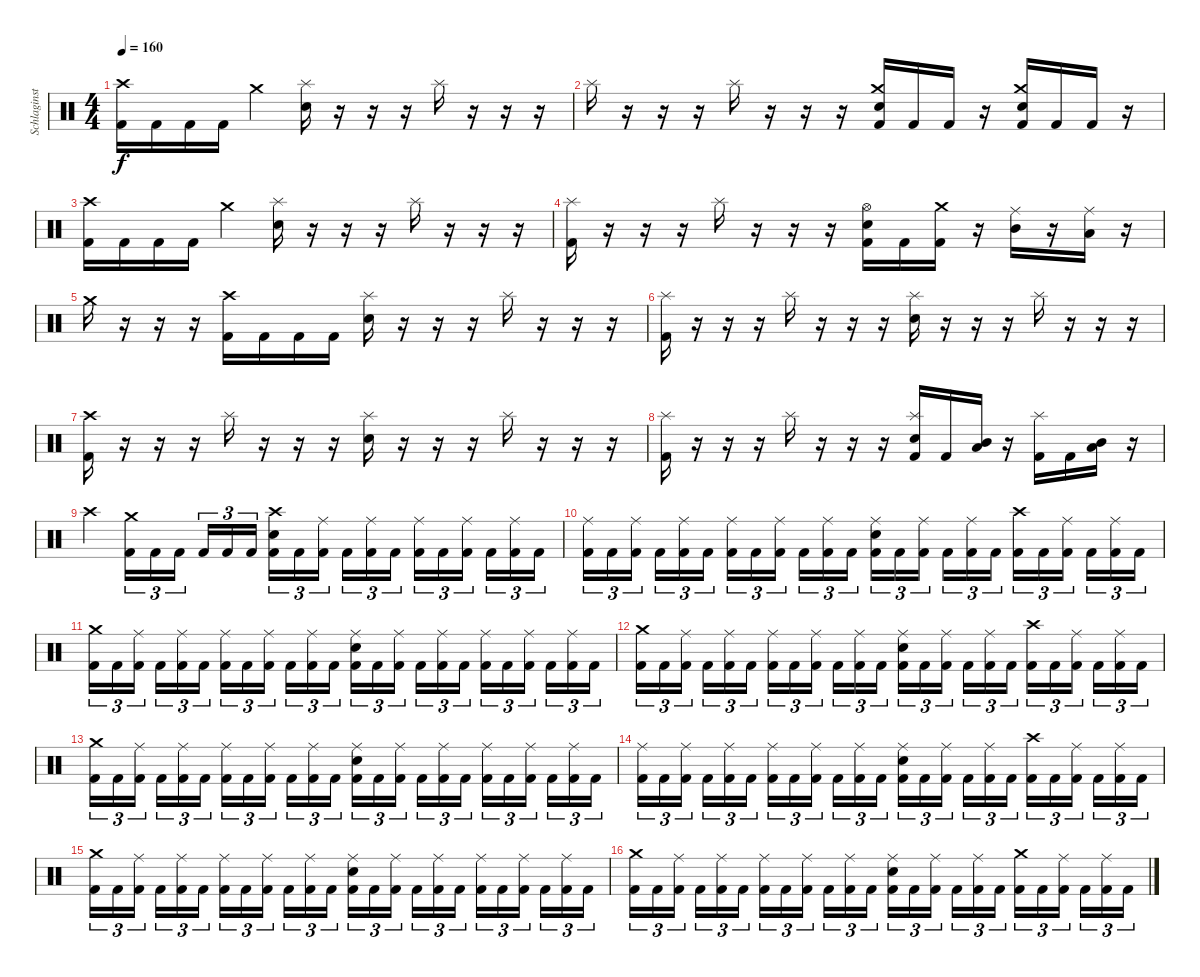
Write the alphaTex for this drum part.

\track ("Schlaginstrumente - Auswahl" "Schlaginst") {instrument percussion}
\staff {score}
\articulation defaults
\ts (4 4)
\tempo 160
\clef neutral
\ks c
("Crash high (hit)" "Kick (hit) 2").16{dy f} "Kick (hit) 2".16 "Kick (hit) 2".16 "Kick (hit) 2".16 "Crash medium (hit)".4 ("Splash (hit)" "Electric Snare (hit)").16 r.16 r.16 r.16 "Splash (hit)".16 r.16 r.16 r.16 |
"Splash (hit)".16 r.16 r.16 r.16 "Splash (hit)".16 r.16 r.16 r.16 ("Crash medium (hit)" "Electric Snare (hit)" "Kick (hit) 2").16 "Kick (hit) 2".16 "Kick (hit) 2".16 r.16 ("Crash medium (hit)" "Electric Snare (hit)" "Kick (hit) 2").16 "Kick (hit) 2".16 "Kick (hit) 2".16 r.16 |
("Crash high (hit)" "Kick (hit) 2").16 "Kick (hit) 2".16 "Kick (hit) 2".16 "Kick (hit) 2".16 "Crash medium (hit)".4 ("Splash (hit)" "Electric Snare (hit)").16 r.16 r.16 r.16 "Splash (hit)".16 r.16 r.16 r.16 |
("Splash (hit)" "Kick (hit) 2").16 r.16 r.16 r.16 "Splash (hit)".16 r.16 r.16 r.16 ("Hi-Hat (open)" "Electric Snare (hit)" "Kick (hit) 2").16 "Kick (hit) 2".16 ("Crash medium (hit)" "Kick (hit) 2").16 r.16 ("Ride (middle)" "Mid Tom (hit)").16 r.16 ("Ride (middle)" "Low Tom (hit)").16 r.16 |
"Crash medium (hit)".16 r.16 r.16 r.16 ("Crash high (hit)" "Kick (hit) 2").16 "Kick (hit) 2".16 "Kick (hit) 2".16 "Kick (hit) 2".16 ("Splash (hit)" "Electric Snare (hit)").16 r.16 r.16 r.16 "Splash (hit)".16 r.16 r.16 r.16 |
("Splash (hit)" "Kick (hit) 2").16 r.16 r.16 r.16 "Splash (hit)".16 r.16 r.16 r.16 ("Splash (hit)" "Electric Snare (hit)").16 r.16 r.16 r.16 "Splash (hit)".16 r.16 r.16 r.16 |
("Crash high (hit)" "Kick (hit) 2").16 r.16 r.16 r.16 "Splash (hit)".16 r.16 r.16 r.16 ("Splash (hit)" "Electric Snare (hit)").16 r.16 r.16 r.16 "Splash (hit)".16 r.16 r.16 r.16 |
("Splash (hit)" "Kick (hit) 2").16 r.16 r.16 r.16 "Splash (hit)".16 r.16 r.16 r.16 ("Splash (hit)" "Electric Snare (hit)" "Kick (hit) 2").16 "Kick (hit) 2".16 ("Low Tom (hit)" "Mid Tom (hit)").16 r.16 ("Splash (hit)" "Kick (hit) 2").16 "Kick (hit) 2".16 ("Low Tom (hit)" "Mid Tom (hit)").16 r.16 |
"Crash high (hit)".4 ("Crash medium (hit)" "Kick (hit) 2").16{tu (3 2)} "Kick (hit) 2".16{tu (3 2)} "Kick (hit) 2".16{tu (3 2) beam splitsecondary} "Kick (hit) 2".16{tu (3 2)} "Kick (hit) 2".16{tu (3 2)} "Kick (hit) 2".16{tu (3 2)} ("Crash high (hit)" "Electric Snare (hit)" "Kick (hit) 2").16{tu (3 2)} "Kick (hit) 2".16{tu (3 2)} ("Ride (middle)" "Kick (hit) 2").16{tu (3 2) beam splitsecondary} "Kick (hit) 2".16{tu (3 2)} ("Ride (middle)" "Kick (hit) 2").16{tu (3 2)} "Kick (hit) 2".16{tu (3 2)} ("Ride (middle)" "Kick (hit) 2").16{tu (3 2)} "Kick (hit) 2".16{tu (3 2)} ("Ride (middle)" "Kick (hit) 2").16{tu (3 2) beam splitsecondary} "Kick (hit) 2".16{tu (3 2)} ("Ride (middle)" "Kick (hit) 2").16{tu (3 2)} "Kick (hit) 2".16{tu (3 2)} |
("Ride (middle)" "Kick (hit) 2").16{tu (3 2)} "Kick (hit) 2".16{tu (3 2)} ("Ride (middle)" "Kick (hit) 2").16{tu (3 2) beam splitsecondary} "Kick (hit) 2".16{tu (3 2)} ("Ride (middle)" "Kick (hit) 2").16{tu (3 2)} "Kick (hit) 2".16{tu (3 2)} ("Ride (middle)" "Kick (hit) 2").16{tu (3 2)} "Kick (hit) 2".16{tu (3 2)} ("Ride (middle)" "Kick (hit) 2").16{tu (3 2) beam splitsecondary} "Kick (hit) 2".16{tu (3 2)} ("Ride (middle)" "Kick (hit) 2").16{tu (3 2)} "Kick (hit) 2".16{tu (3 2)} ("Ride (middle)" "Electric Snare (hit)" "Kick (hit) 2").16{tu (3 2)} "Kick (hit) 2".16{tu (3 2)} ("Ride (middle)" "Kick (hit) 2").16{tu (3 2) beam splitsecondary} "Kick (hit) 2".16{tu (3 2)} ("Ride (middle)" "Kick (hit) 2").16{tu (3 2)} "Kick (hit) 2".16{tu (3 2)} ("Crash high (hit)" "Kick (hit) 2").16{tu (3 2)} "Kick (hit) 2".16{tu (3 2)} ("Ride (middle)" "Kick (hit) 2").16{tu (3 2) beam splitsecondary} "Kick (hit) 2".16{tu (3 2)} ("Ride (middle)" "Kick (hit) 2").16{tu (3 2)} "Kick (hit) 2".16{tu (3 2)} |
("Crash medium (hit)" "Kick (hit) 2").16{tu (3 2)} "Kick (hit) 2".16{tu (3 2)} ("Ride (middle)" "Kick (hit) 2").16{tu (3 2) beam splitsecondary} "Kick (hit) 2".16{tu (3 2)} ("Ride (middle)" "Kick (hit) 2").16{tu (3 2)} "Kick (hit) 2".16{tu (3 2)} ("Ride (middle)" "Kick (hit) 2").16{tu (3 2)} "Kick (hit) 2".16{tu (3 2)} ("Ride (middle)" "Kick (hit) 2").16{tu (3 2) beam splitsecondary} "Kick (hit) 2".16{tu (3 2)} ("Ride (middle)" "Kick (hit) 2").16{tu (3 2)} "Kick (hit) 2".16{tu (3 2)} ("Ride (middle)" "Electric Snare (hit)" "Kick (hit) 2").16{tu (3 2)} "Kick (hit) 2".16{tu (3 2)} ("Ride (middle)" "Kick (hit) 2").16{tu (3 2) beam splitsecondary} "Kick (hit) 2".16{tu (3 2)} ("Ride (middle)" "Kick (hit) 2").16{tu (3 2)} "Kick (hit) 2".16{tu (3 2)} ("Ride (middle)" "Kick (hit) 2").16{tu (3 2)} "Kick (hit) 2".16{tu (3 2)} ("Ride (middle)" "Kick (hit) 2").16{tu (3 2) beam splitsecondary} "Kick (hit) 2".16{tu (3 2)} ("Ride (middle)" "Kick (hit) 2").16{tu (3 2)} "Kick (hit) 2".16{tu (3 2)} |
("Crash medium (hit)" "Kick (hit) 2").16{tu (3 2)} "Kick (hit) 2".16{tu (3 2)} ("Ride (middle)" "Kick (hit) 2").16{tu (3 2) beam splitsecondary} "Kick (hit) 2".16{tu (3 2)} ("Ride (middle)" "Kick (hit) 2").16{tu (3 2)} "Kick (hit) 2".16{tu (3 2)} ("Ride (middle)" "Kick (hit) 2").16{tu (3 2)} "Kick (hit) 2".16{tu (3 2)} ("Ride (middle)" "Kick (hit) 2").16{tu (3 2) beam splitsecondary} "Kick (hit) 2".16{tu (3 2)} ("Ride (middle)" "Kick (hit) 2").16{tu (3 2)} "Kick (hit) 2".16{tu (3 2)} ("Ride (middle)" "Electric Snare (hit)" "Kick (hit) 2").16{tu (3 2)} "Kick (hit) 2".16{tu (3 2)} ("Ride (middle)" "Kick (hit) 2").16{tu (3 2) beam splitsecondary} "Kick (hit) 2".16{tu (3 2)} ("Ride (middle)" "Kick (hit) 2").16{tu (3 2)} "Kick (hit) 2".16{tu (3 2)} ("Crash high (hit)" "Kick (hit) 2").16{tu (3 2)} "Kick (hit) 2".16{tu (3 2)} ("Ride (middle)" "Kick (hit) 2").16{tu (3 2) beam splitsecondary} "Kick (hit) 2".16{tu (3 2)} ("Ride (middle)" "Kick (hit) 2").16{tu (3 2)} "Kick (hit) 2".16{tu (3 2)} |
("Crash medium (hit)" "Kick (hit) 2").16{tu (3 2)} "Kick (hit) 2".16{tu (3 2)} ("Ride (middle)" "Kick (hit) 2").16{tu (3 2) beam splitsecondary} "Kick (hit) 2".16{tu (3 2)} ("Ride (middle)" "Kick (hit) 2").16{tu (3 2)} "Kick (hit) 2".16{tu (3 2)} ("Ride (middle)" "Kick (hit) 2").16{tu (3 2)} "Kick (hit) 2".16{tu (3 2)} ("Ride (middle)" "Kick (hit) 2").16{tu (3 2) beam splitsecondary} "Kick (hit) 2".16{tu (3 2)} ("Ride (middle)" "Kick (hit) 2").16{tu (3 2)} "Kick (hit) 2".16{tu (3 2)} ("Ride (middle)" "Electric Snare (hit)" "Kick (hit) 2").16{tu (3 2)} "Kick (hit) 2".16{tu (3 2)} ("Ride (middle)" "Kick (hit) 2").16{tu (3 2) beam splitsecondary} "Kick (hit) 2".16{tu (3 2)} ("Ride (middle)" "Kick (hit) 2").16{tu (3 2)} "Kick (hit) 2".16{tu (3 2)} ("Ride (middle)" "Kick (hit) 2").16{tu (3 2)} "Kick (hit) 2".16{tu (3 2)} ("Ride (middle)" "Kick (hit) 2").16{tu (3 2) beam splitsecondary} "Kick (hit) 2".16{tu (3 2)} ("Ride (middle)" "Kick (hit) 2").16{tu (3 2)} "Kick (hit) 2".16{tu (3 2)} |
("Ride (middle)" "Kick (hit) 2").16{tu (3 2)} "Kick (hit) 2".16{tu (3 2)} ("Ride (middle)" "Kick (hit) 2").16{tu (3 2) beam splitsecondary} "Kick (hit) 2".16{tu (3 2)} ("Ride (middle)" "Kick (hit) 2").16{tu (3 2)} "Kick (hit) 2".16{tu (3 2)} ("Ride (middle)" "Kick (hit) 2").16{tu (3 2)} "Kick (hit) 2".16{tu (3 2)} ("Ride (middle)" "Kick (hit) 2").16{tu (3 2) beam splitsecondary} "Kick (hit) 2".16{tu (3 2)} ("Ride (middle)" "Kick (hit) 2").16{tu (3 2)} "Kick (hit) 2".16{tu (3 2)} ("Ride (middle)" "Electric Snare (hit)" "Kick (hit) 2").16{tu (3 2)} "Kick (hit) 2".16{tu (3 2)} ("Ride (middle)" "Kick (hit) 2").16{tu (3 2) beam splitsecondary} "Kick (hit) 2".16{tu (3 2)} ("Ride (middle)" "Kick (hit) 2").16{tu (3 2)} "Kick (hit) 2".16{tu (3 2)} ("Crash high (hit)" "Kick (hit) 2").16{tu (3 2)} "Kick (hit) 2".16{tu (3 2)} ("Ride (middle)" "Kick (hit) 2").16{tu (3 2) beam splitsecondary} "Kick (hit) 2".16{tu (3 2)} ("Ride (middle)" "Kick (hit) 2").16{tu (3 2)} "Kick (hit) 2".16{tu (3 2)} |
("Crash medium (hit)" "Kick (hit) 2").16{tu (3 2)} "Kick (hit) 2".16{tu (3 2)} ("Ride (middle)" "Kick (hit) 2").16{tu (3 2) beam splitsecondary} "Kick (hit) 2".16{tu (3 2)} ("Ride (middle)" "Kick (hit) 2").16{tu (3 2)} "Kick (hit) 2".16{tu (3 2)} ("Ride (middle)" "Kick (hit) 2").16{tu (3 2)} "Kick (hit) 2".16{tu (3 2)} ("Ride (middle)" "Kick (hit) 2").16{tu (3 2) beam splitsecondary} "Kick (hit) 2".16{tu (3 2)} ("Ride (middle)" "Kick (hit) 2").16{tu (3 2)} "Kick (hit) 2".16{tu (3 2)} ("Ride (middle)" "Electric Snare (hit)" "Kick (hit) 2").16{tu (3 2)} "Kick (hit) 2".16{tu (3 2)} ("Ride (middle)" "Kick (hit) 2").16{tu (3 2) beam splitsecondary} "Kick (hit) 2".16{tu (3 2)} ("Ride (middle)" "Kick (hit) 2").16{tu (3 2)} "Kick (hit) 2".16{tu (3 2)} ("Ride (middle)" "Kick (hit) 2").16{tu (3 2)} "Kick (hit) 2".16{tu (3 2)} ("Ride (middle)" "Kick (hit) 2").16{tu (3 2) beam splitsecondary} "Kick (hit) 2".16{tu (3 2)} ("Ride (middle)" "Kick (hit) 2").16{tu (3 2)} "Kick (hit) 2".16{tu (3 2)} |
("Crash medium (hit)" "Kick (hit) 2").16{tu (3 2)} "Kick (hit) 2".16{tu (3 2)} ("Ride (middle)" "Kick (hit) 2").16{tu (3 2) beam splitsecondary} "Kick (hit) 2".16{tu (3 2)} ("Ride (middle)" "Kick (hit) 2").16{tu (3 2)} "Kick (hit) 2".16{tu (3 2)} ("Ride (middle)" "Kick (hit) 2").16{tu (3 2)} "Kick (hit) 2".16{tu (3 2)} ("Ride (middle)" "Kick (hit) 2").16{tu (3 2) beam splitsecondary} "Kick (hit) 2".16{tu (3 2)} ("Ride (middle)" "Kick (hit) 2").16{tu (3 2)} "Kick (hit) 2".16{tu (3 2)} ("Ride (middle)" "Electric Snare (hit)" "Kick (hit) 2").16{tu (3 2)} "Kick (hit) 2".16{tu (3 2)} ("Ride (middle)" "Kick (hit) 2").16{tu (3 2) beam splitsecondary} "Kick (hit) 2".16{tu (3 2)} ("Ride (middle)" "Kick (hit) 2").16{tu (3 2)} "Kick (hit) 2".16{tu (3 2)} ("Crash medium (hit)" "Kick (hit) 2").16{tu (3 2)} "Kick (hit) 2".16{tu (3 2)} ("Ride (middle)" "Kick (hit) 2").16{tu (3 2) beam splitsecondary} "Kick (hit) 2".16{tu (3 2)} ("Ride (middle)" "Kick (hit) 2").16{tu (3 2)} "Kick (hit) 2".16{tu (3 2)}
